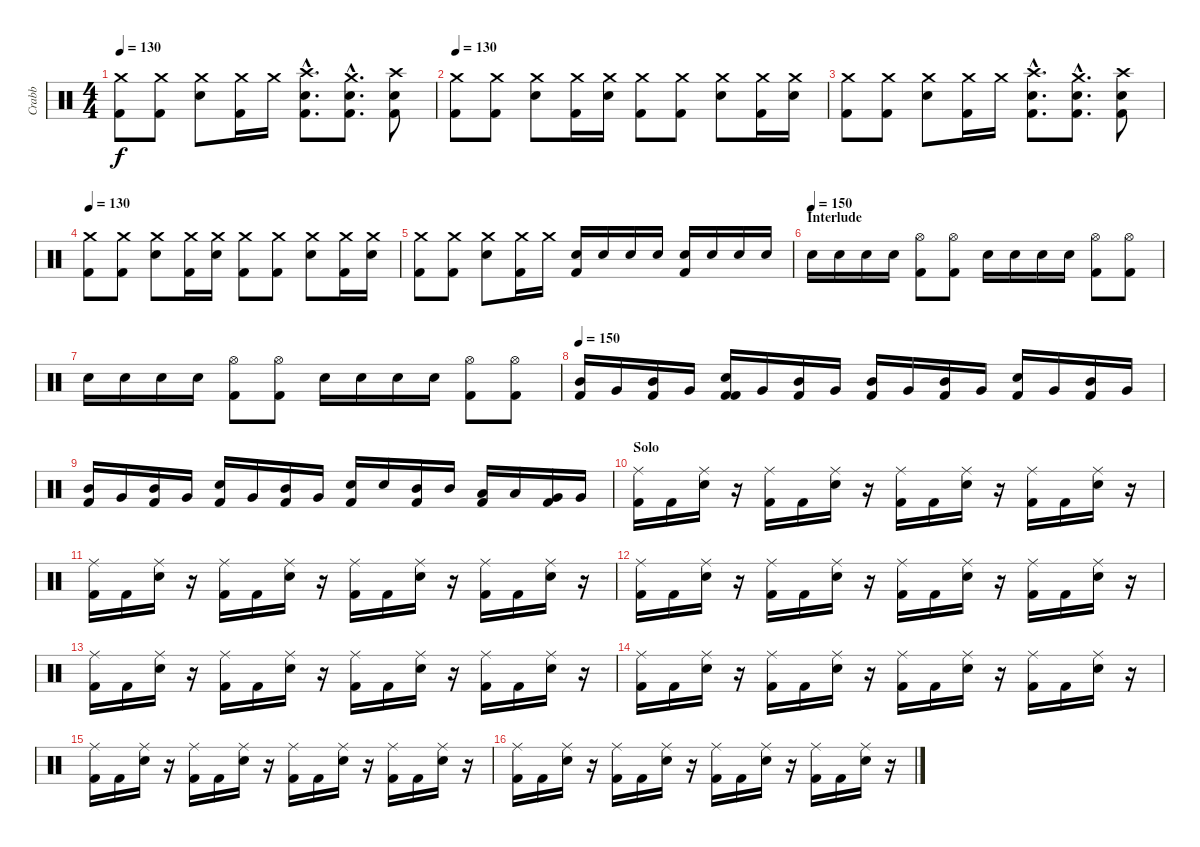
\track ("Crabb" "Crabb") {instrument percussion}
\staff {score}
\articulation defaults
\ts (4 4)
\tempo 130
\clef neutral
\ks c
("Crash medium (hit)" "Kick (hit) 2").8{dy f} ("Crash medium (hit)" "Kick (hit) 2").8 ("Crash medium (hit)" "Electric Snare (hit)").8 ("Crash medium (hit)" "Kick (hit) 2").16 "Crash medium (hit)".16 ("Crash high (hit)"{hac} "Kick (hit) 2"{hac} "Electric Snare (hit)"{hac}).8{d} ("Crash medium (hit)"{hac} "Kick (hit) 2"{hac} "Electric Snare (hit)"{hac}).8{d} ("Crash high (hit)" "Kick (hit) 2" "Electric Snare (hit)").8 |
\tempo 130
("Crash medium (hit)" "Kick (hit) 2").8 ("Crash medium (hit)" "Kick (hit) 2").8 ("Crash medium (hit)" "Electric Snare (hit)").8 ("Crash medium (hit)" "Kick (hit) 2").16 ("Crash medium (hit)" "Electric Snare (hit)").16 ("Crash medium (hit)" "Kick (hit) 2").8 ("Crash medium (hit)" "Kick (hit) 2").8 ("Crash medium (hit)" "Electric Snare (hit)").8 ("Crash medium (hit)" "Kick (hit) 2").16 ("Crash medium (hit)" "Electric Snare (hit)").16 |
("Crash medium (hit)" "Kick (hit) 2").8 ("Crash medium (hit)" "Kick (hit) 2").8 ("Crash medium (hit)" "Electric Snare (hit)").8 ("Crash medium (hit)" "Kick (hit) 2").16 "Crash medium (hit)".16 ("Crash high (hit)"{hac} "Kick (hit) 2"{hac} "Electric Snare (hit)"{hac}).8{d} ("Crash medium (hit)"{hac} "Kick (hit) 2"{hac} "Electric Snare (hit)"{hac}).8{d} ("Crash high (hit)" "Kick (hit) 2" "Electric Snare (hit)").8 |
\tempo 130
("Crash medium (hit)" "Kick (hit) 2").8 ("Crash medium (hit)" "Kick (hit) 2").8 ("Crash medium (hit)" "Electric Snare (hit)").8 ("Crash medium (hit)" "Kick (hit) 2").16 ("Crash medium (hit)" "Electric Snare (hit)").16 ("Crash medium (hit)" "Kick (hit) 2").8 ("Crash medium (hit)" "Kick (hit) 2").8 ("Crash medium (hit)" "Electric Snare (hit)").8 ("Crash medium (hit)" "Kick (hit) 2").16 ("Crash medium (hit)" "Electric Snare (hit)").16 |
("Crash medium (hit)" "Kick (hit) 2").8 ("Crash medium (hit)" "Kick (hit) 2").8 ("Crash medium (hit)" "Electric Snare (hit)").8 ("Crash medium (hit)" "Kick (hit) 2").16 "Crash medium (hit)".16 ("Kick (hit) 2" "Electric Snare (hit)").16 "Electric Snare (hit)".16 "Electric Snare (hit)".16 "Electric Snare (hit)".16 ("Kick (hit) 2" "Electric Snare (hit)").16 "Electric Snare (hit)".16 "Electric Snare (hit)".16 "Electric Snare (hit)".16 |
\section ("" "Interlude")
\tempo (150)
"Electric Snare (hit)".16 "Electric Snare (hit)".16 "Electric Snare (hit)".16 "Electric Snare (hit)".16 ("Hi-Hat (open)" "Kick (hit) 2").8 ("Hi-Hat (open)" "Kick (hit) 2").8 "Electric Snare (hit)".16 "Electric Snare (hit)".16 "Electric Snare (hit)".16 "Electric Snare (hit)".16 ("Hi-Hat (open)" "Kick (hit) 2").8 ("Hi-Hat (open)" "Kick (hit) 2").8 |
"Electric Snare (hit)".16 "Electric Snare (hit)".16 "Electric Snare (hit)".16 "Electric Snare (hit)".16 ("Hi-Hat (open)" "Kick (hit) 2").8 ("Hi-Hat (open)" "Kick (hit) 2").8 "Electric Snare (hit)".16 "Electric Snare (hit)".16 "Electric Snare (hit)".16 "Electric Snare (hit)".16 ("Hi-Hat (open)" "Kick (hit) 2").8 ("Hi-Hat (open)" "Kick (hit) 2").8 |
\tempo 150
("Mid Tom (hit)" "Kick (hit) 2").16 "Very Low Tom (hit)".16 ("Mid Tom (hit)" "Kick (hit) 2").16 "Very Low Tom (hit)".16 ("Kick (hit) 2" "Electric Snare (hit)" "Kick (hit) 2").16 "Very Low Tom (hit)".16 ("Mid Tom (hit)" "Kick (hit) 2").16 "Very Low Tom (hit)".16 ("Mid Tom (hit)" "Kick (hit) 2").16 "Very Low Tom (hit)".16 ("Mid Tom (hit)" "Kick (hit) 2").16 "Very Low Tom (hit)".16 ("Electric Snare (hit)" "Kick (hit) 2").16 "Very Low Tom (hit)".16 ("Mid Tom (hit)" "Kick (hit) 2").16 "Very Low Tom (hit)".16 |
("Mid Tom (hit)" "Kick (hit) 2").16 "Very Low Tom (hit)".16 ("Mid Tom (hit)" "Kick (hit) 2").16 "Very Low Tom (hit)".16 ("Electric Snare (hit)" "Kick (hit) 2").16 "Very Low Tom (hit)".16 ("Mid Tom (hit)" "Kick (hit) 2").16 "Very Low Tom (hit)".16 ("Electric Snare (hit)" "Kick (hit) 2").16 "Electric Snare (hit)".16 ("Mid Tom (hit)" "Kick (hit) 2").16 "Mid Tom (hit)".16 ("Low Tom (hit)" "Kick (hit) 2").16 "Low Tom (hit)".16 ("Very Low Tom (hit)" "Kick (hit) 2").16 "Very Low Tom (hit)".16 |
\section ("" "Solo")
("Ride (middle)" "Kick (hit) 2").16 "Kick (hit) 2".16 ("Ride (middle)" "Electric Snare (hit)").16 r.16 ("Ride (middle)" "Kick (hit) 2").16 "Kick (hit) 2".16 ("Ride (middle)" "Electric Snare (hit)").16 r.16 ("Ride (middle)" "Kick (hit) 2").16 "Kick (hit) 2".16 ("Ride (middle)" "Electric Snare (hit)").16 r.16 ("Ride (middle)" "Kick (hit) 2").16 "Kick (hit) 2".16 ("Ride (middle)" "Electric Snare (hit)").16 r.16 |
("Ride (middle)" "Kick (hit) 2").16 "Kick (hit) 2".16 ("Ride (middle)" "Electric Snare (hit)").16 r.16 ("Ride (middle)" "Kick (hit) 2").16 "Kick (hit) 2".16 ("Ride (middle)" "Electric Snare (hit)").16 r.16 ("Ride (middle)" "Kick (hit) 2").16 "Kick (hit) 2".16 ("Ride (middle)" "Electric Snare (hit)").16 r.16 ("Ride (middle)" "Kick (hit) 2").16 "Kick (hit) 2".16 ("Ride (middle)" "Electric Snare (hit)").16 r.16 |
("Ride (middle)" "Kick (hit) 2").16 "Kick (hit) 2".16 ("Ride (middle)" "Electric Snare (hit)").16 r.16 ("Ride (middle)" "Kick (hit) 2").16 "Kick (hit) 2".16 ("Ride (middle)" "Electric Snare (hit)").16 r.16 ("Ride (middle)" "Kick (hit) 2").16 "Kick (hit) 2".16 ("Ride (middle)" "Electric Snare (hit)").16 r.16 ("Ride (middle)" "Kick (hit) 2").16 "Kick (hit) 2".16 ("Ride (middle)" "Electric Snare (hit)").16 r.16 |
("Ride (middle)" "Kick (hit) 2").16 "Kick (hit) 2".16 ("Ride (middle)" "Electric Snare (hit)").16 r.16 ("Ride (middle)" "Kick (hit) 2").16 "Kick (hit) 2".16 ("Ride (middle)" "Electric Snare (hit)").16 r.16 ("Ride (middle)" "Kick (hit) 2").16 "Kick (hit) 2".16 ("Ride (middle)" "Electric Snare (hit)").16 r.16 ("Ride (middle)" "Kick (hit) 2").16 "Kick (hit) 2".16 ("Ride (middle)" "Electric Snare (hit)").16 r.16 |
("Ride (middle)" "Kick (hit) 2").16 "Kick (hit) 2".16 ("Ride (middle)" "Electric Snare (hit)").16 r.16 ("Ride (middle)" "Kick (hit) 2").16 "Kick (hit) 2".16 ("Ride (middle)" "Electric Snare (hit)").16 r.16 ("Ride (middle)" "Kick (hit) 2").16 "Kick (hit) 2".16 ("Ride (middle)" "Electric Snare (hit)").16 r.16 ("Ride (middle)" "Kick (hit) 2").16 "Kick (hit) 2".16 ("Ride (middle)" "Electric Snare (hit)").16 r.16 |
("Ride (middle)" "Kick (hit) 2").16 "Kick (hit) 2".16 ("Ride (middle)" "Electric Snare (hit)").16 r.16 ("Ride (middle)" "Kick (hit) 2").16 "Kick (hit) 2".16 ("Ride (middle)" "Electric Snare (hit)").16 r.16 ("Ride (middle)" "Kick (hit) 2").16 "Kick (hit) 2".16 ("Ride (middle)" "Electric Snare (hit)").16 r.16 ("Ride (middle)" "Kick (hit) 2").16 "Kick (hit) 2".16 ("Ride (middle)" "Electric Snare (hit)").16 r.16 |
("Ride (middle)" "Kick (hit) 2").16 "Kick (hit) 2".16 ("Ride (middle)" "Electric Snare (hit)").16 r.16 ("Ride (middle)" "Kick (hit) 2").16 "Kick (hit) 2".16 ("Ride (middle)" "Electric Snare (hit)").16 r.16 ("Ride (middle)" "Kick (hit) 2").16 "Kick (hit) 2".16 ("Ride (middle)" "Electric Snare (hit)").16 r.16 ("Ride (middle)" "Kick (hit) 2").16 "Kick (hit) 2".16 ("Ride (middle)" "Electric Snare (hit)").16 r.16
